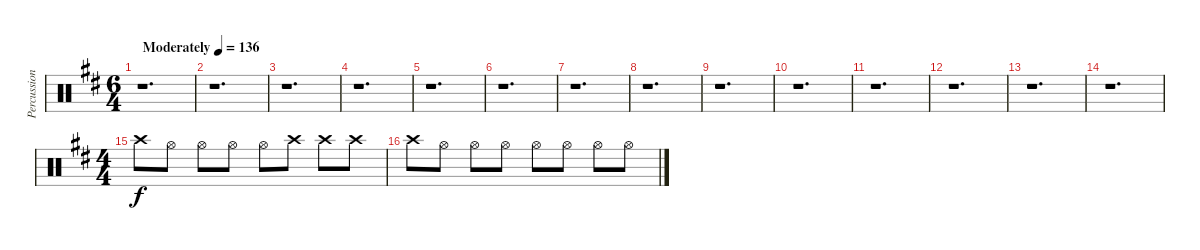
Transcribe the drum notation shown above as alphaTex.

\track ("Percussion" "Percussion") {instrument percussion}
\staff {score}
\articulation defaults
\ts (6 4)
\tempo (136 "Moderately")
\clef neutral
\ks d
r.1{d dy f} |
r.1{d} |
r.1{d} |
r.1{d} |
r.1{d} |
r.1{d} |
r.1{d} |
r.1{d} |
r.1{d} |
r.1{d} |
r.1{d} |
r.1{d} |
r.1{d} |
r.1{d} |
\ts (4 4)
"Crash high (hit)".8 "Hi-Hat (open)".8 "Hi-Hat (open)".8 "Hi-Hat (open)".8 "Hi-Hat (open)".8 "Crash high (hit)".8 "Crash high (hit)".8 "Crash high (hit)".8 |
"Crash high (hit)".8 "Hi-Hat (open)".8 "Hi-Hat (open)".8 "Hi-Hat (open)".8 "Hi-Hat (open)".8 "Hi-Hat (open)".8 "Hi-Hat (open)".8 "Hi-Hat (open)".8
